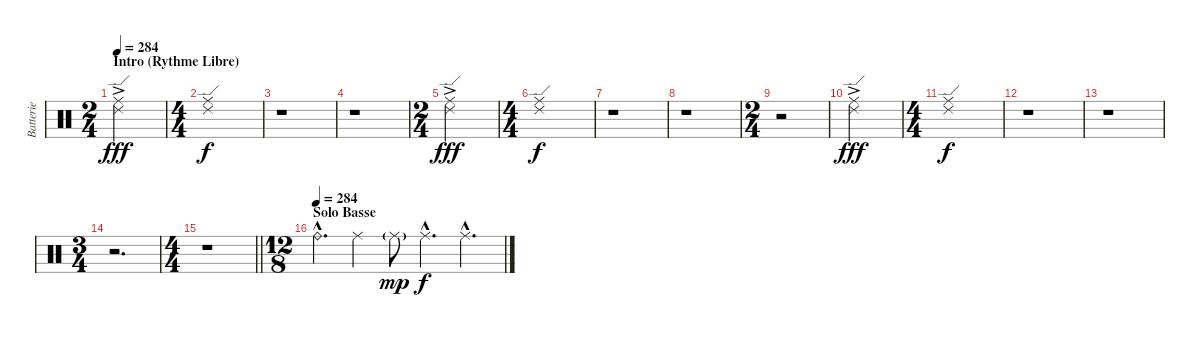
\track ("Batterie" "Batterie") {instrument percussion}
\staff {score}
\articulation defaults
\ts (2 4)
\section ("" "Intro (Rythme Libre)")
\tempo 284
\tempo 142
\tempo 284
\clef neutral
\ks c
("Ride (middle)"{ac} "Ride (edge) 2"{ac}).2{dy fff volume 12 balance 13} |
\ts (4 4)
("Ride (middle)" "Ride (edge) 2").1{dy f} |
r.1 |
r.1 |
\ts (2 4)
("Ride (middle)"{ac} "Ride (edge) 2"{ac}).2{dy fff} |
\ts (4 4)
("Ride (middle)" "Ride (edge) 2").1{dy f} |
r.1 |
r.1 |
\ts (2 4)
r.2 |
("Ride (middle)"{ac} "Ride (edge) 2"{ac}).2{dy fff} |
\ts (4 4)
("Ride (middle)" "Ride (edge) 2").1{dy f} |
r.1 |
r.1 |
\ts (3 4)
r.2{d} |
\ts (4 4)
\barLineRight lightlight
r.1 |
\ts (12 8)
\section ("" "Solo Basse")
\tempo (284)
"Ride (bell)"{hac}.4{d volume 11 balance 8} "Ride (middle)".4 "Ride (middle)"{g}.8{dy mp} "Ride (middle)"{hac}.4{d dy f} "Ride (middle)"{hac}.4{d}
